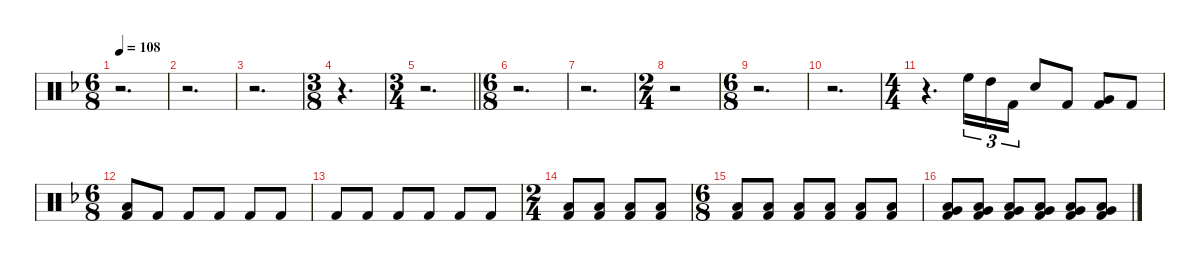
\defaultSystemsLayout 4
\hideDynamics
\bracketExtendMode nobrackets
\singleTrackTrackNamePolicy hidden
\multiTrackTrackNamePolicy hidden
\firstSystemTrackNameMode fullname
\firstSystemTrackNameOrientation horizontal
\otherSystemsTrackNameOrientation horizontal
\track ("Danny Carey" "drm.") {defaultSystemsLayout 4 instrument percussion}
\staff {score}
\articulation defaults
\ts (6 8)
\beaming (8 2 2 2 2)
\tempo 108
\clef neutral
\ks dminor
r.2{d dy f beam Down} |
r.2{d beam Down} |
r.2{d beam Down} |
\ts (3 8)
\beaming (8 2 2 2 2)
r.4{d beam Down} |
\ts (3 4)
\beaming (8 2 2 2 2)
\barLineRight lightlight
r.2{d beam Down} |
\ts (6 8)
\beaming (8 2 2 2 2)
r.2{d beam Down} |
r.2{d beam Down} |
\ts (2 4)
\beaming (8 2 2 2 2)
r.2{beam Down} |
\ts (6 8)
\beaming (8 2 2 2 2)
r.2{d beam Down} |
r.2{d beam Down} |
\ts (4 4)
\beaming (8 2 2 2 2)
r.4{d beam Down} "High Floor Tom (hit)"{acc forcenatural}.16{tu (3 2) beam Down} "High Tom (hit)"{acc forcenatural}.16{tu (3 2) beam Down} "Kick (hit) 2"{acc forcenatural}.16{tu (3 2) beam Down} "Snare (hit) 2"{acc forcenatural}.8{beam Up} "Kick (hit) 2"{acc forcenatural}.8{beam Up} ("Very Low Tom (hit)"{acc forcenatural} "Kick (hit) 2"{acc forcenatural}).8{beam Up} "Kick (hit) 2"{acc forcenatural}.8{beam Up} |
\ts (6 8)
\beaming (8 2 2 2 2)
("Low Floor Tom (hit)"{acc forcenatural} "Kick (hit) 2"{acc forcenatural}).8{beam Up} "Kick (hit) 2"{acc forcenatural}.8{beam Up} "Kick (hit) 2"{acc forcenatural}.8{beam Up} "Kick (hit) 2"{acc forcenatural}.8{beam Up} "Kick (hit) 2"{acc forcenatural}.8{beam Up} "Kick (hit) 2"{acc forcenatural}.8{beam Up} |
"Kick (hit) 2"{acc forcenatural}.8{beam Up} "Kick (hit) 2"{acc forcenatural}.8{beam Up} "Kick (hit) 2"{acc forcenatural}.8{beam Up} "Kick (hit) 2"{acc forcenatural}.8{beam Up} "Kick (hit) 2"{acc forcenatural}.8{beam Up} "Kick (hit) 2"{acc forcenatural}.8{beam Up} |
\ts (2 4)
\beaming (8 2 2 2 2)
("Low Floor Tom (hit)"{acc forcenatural} "Kick (hit) 2"{acc forcenatural}).8{beam Up} ("Low Floor Tom (hit)"{acc forcenatural} "Kick (hit) 2"{acc forcenatural}).8{beam Up} ("Low Floor Tom (hit)"{acc forcenatural} "Kick (hit) 2"{acc forcenatural}).8{beam Up} ("Low Floor Tom (hit)"{acc forcenatural} "Kick (hit) 2"{acc forcenatural}).8{beam Up} |
\ts (6 8)
\beaming (8 2 2 2 2)
("Low Floor Tom (hit)"{acc forcenatural} "Kick (hit) 2"{acc forcenatural}).8{beam Up} ("Low Floor Tom (hit)"{acc forcenatural} "Kick (hit) 2"{acc forcenatural}).8{beam Up} ("Low Floor Tom (hit)"{acc forcenatural} "Kick (hit) 2"{acc forcenatural}).8{beam Up} ("Low Floor Tom (hit)"{acc forcenatural} "Kick (hit) 2"{acc forcenatural}).8{beam Up} ("Low Floor Tom (hit)"{acc forcenatural} "Kick (hit) 2"{acc forcenatural}).8{beam Up} ("Low Floor Tom (hit)"{acc forcenatural} "Kick (hit) 2"{acc forcenatural}).8{beam Up} |
("Very Low Tom (hit)"{acc forcenatural} "Low Floor Tom (hit)"{acc forcenatural} "Kick (hit) 2"{acc forcenatural}).8{beam Up} ("Very Low Tom (hit)"{acc forcenatural} "Low Floor Tom (hit)"{acc forcenatural} "Kick (hit) 2"{acc forcenatural}).8{beam Up} ("Very Low Tom (hit)"{acc forcenatural} "Low Floor Tom (hit)"{acc forcenatural} "Kick (hit) 2"{acc forcenatural}).8{beam Up} ("Very Low Tom (hit)"{acc forcenatural} "Low Floor Tom (hit)"{acc forcenatural} "Kick (hit) 2"{acc forcenatural}).8{beam Up} ("Very Low Tom (hit)"{acc forcenatural} "Low Floor Tom (hit)"{acc forcenatural} "Kick (hit) 2"{acc forcenatural}).8{beam Up} ("Very Low Tom (hit)"{acc forcenatural} "Low Floor Tom (hit)"{acc forcenatural} "Kick (hit) 2"{acc forcenatural}).8{beam Up}
